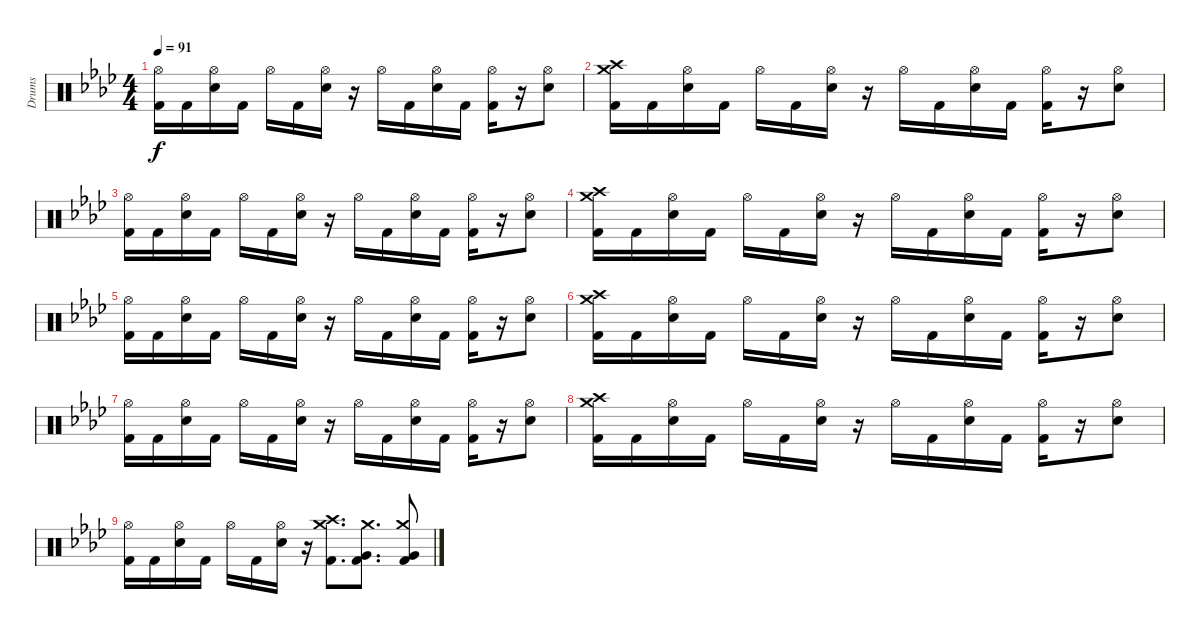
\track ("Drums" "Drums") {instrument percussion}
\staff {score}
\articulation defaults
\ts (4 4)
\tempo 91
\clef neutral
\ks fminor
("Hi-Hat (open)" "Kick (hit) 2").16{dy f} "Kick (hit) 2".16 ("Hi-Hat (open)" "Electric Snare (hit)").16 "Kick (hit) 2".16 "Hi-Hat (open)".16 "Kick (hit) 2".16 ("Hi-Hat (open)" "Electric Snare (hit)").16 r.16 "Hi-Hat (open)".16 "Kick (hit) 2".16 ("Hi-Hat (open)" "Electric Snare (hit)").16 "Kick (hit) 2".16 ("Hi-Hat (open)" "Kick (hit) 2").16 r.16 ("Hi-Hat (open)" "Electric Snare (hit)").8 |
("Crash medium (hit)" "Crash high (hit)" "Kick (hit) 2").16 "Kick (hit) 2".16 ("Hi-Hat (open)" "Electric Snare (hit)").16 "Kick (hit) 2".16 "Hi-Hat (open)".16 "Kick (hit) 2".16 ("Hi-Hat (open)" "Electric Snare (hit)").16 r.16 "Hi-Hat (open)".16 "Kick (hit) 2".16 ("Hi-Hat (open)" "Electric Snare (hit)").16 "Kick (hit) 2".16 ("Hi-Hat (open)" "Kick (hit) 2").16 r.16 ("Hi-Hat (open)" "Electric Snare (hit)").8 |
("Hi-Hat (open)" "Kick (hit) 2").16 "Kick (hit) 2".16 ("Hi-Hat (open)" "Electric Snare (hit)").16 "Kick (hit) 2".16 "Hi-Hat (open)".16 "Kick (hit) 2".16 ("Hi-Hat (open)" "Electric Snare (hit)").16 r.16 "Hi-Hat (open)".16 "Kick (hit) 2".16 ("Hi-Hat (open)" "Electric Snare (hit)").16 "Kick (hit) 2".16 ("Hi-Hat (open)" "Kick (hit) 2").16 r.16 ("Hi-Hat (open)" "Electric Snare (hit)").8 |
("Crash medium (hit)" "Crash high (hit)" "Kick (hit) 2").16 "Kick (hit) 2".16 ("Hi-Hat (open)" "Electric Snare (hit)").16 "Kick (hit) 2".16 "Hi-Hat (open)".16 "Kick (hit) 2".16 ("Hi-Hat (open)" "Electric Snare (hit)").16 r.16 "Hi-Hat (open)".16 "Kick (hit) 2".16 ("Hi-Hat (open)" "Electric Snare (hit)").16 "Kick (hit) 2".16 ("Hi-Hat (open)" "Kick (hit) 2").16 r.16 ("Hi-Hat (open)" "Electric Snare (hit)").8 |
("Hi-Hat (open)" "Kick (hit) 2").16 "Kick (hit) 2".16 ("Hi-Hat (open)" "Electric Snare (hit)").16 "Kick (hit) 2".16 "Hi-Hat (open)".16 "Kick (hit) 2".16 ("Hi-Hat (open)" "Electric Snare (hit)").16 r.16 "Hi-Hat (open)".16 "Kick (hit) 2".16 ("Hi-Hat (open)" "Electric Snare (hit)").16 "Kick (hit) 2".16 ("Hi-Hat (open)" "Kick (hit) 2").16 r.16 ("Hi-Hat (open)" "Electric Snare (hit)").8 |
("Crash medium (hit)" "Crash high (hit)" "Kick (hit) 2").16 "Kick (hit) 2".16 ("Hi-Hat (open)" "Electric Snare (hit)").16 "Kick (hit) 2".16 "Hi-Hat (open)".16 "Kick (hit) 2".16 ("Hi-Hat (open)" "Electric Snare (hit)").16 r.16 "Hi-Hat (open)".16 "Kick (hit) 2".16 ("Hi-Hat (open)" "Electric Snare (hit)").16 "Kick (hit) 2".16 ("Hi-Hat (open)" "Kick (hit) 2").16 r.16 ("Hi-Hat (open)" "Electric Snare (hit)").8 |
("Hi-Hat (open)" "Kick (hit) 2").16 "Kick (hit) 2".16 ("Hi-Hat (open)" "Electric Snare (hit)").16 "Kick (hit) 2".16 "Hi-Hat (open)".16 "Kick (hit) 2".16 ("Hi-Hat (open)" "Electric Snare (hit)").16 r.16 "Hi-Hat (open)".16 "Kick (hit) 2".16 ("Hi-Hat (open)" "Electric Snare (hit)").16 "Kick (hit) 2".16 ("Hi-Hat (open)" "Kick (hit) 2").16 r.16 ("Hi-Hat (open)" "Electric Snare (hit)").8 |
("Crash medium (hit)" "Crash high (hit)" "Kick (hit) 2").16 "Kick (hit) 2".16 ("Hi-Hat (open)" "Electric Snare (hit)").16 "Kick (hit) 2".16 "Hi-Hat (open)".16 "Kick (hit) 2".16 ("Hi-Hat (open)" "Electric Snare (hit)").16 r.16 "Hi-Hat (open)".16 "Kick (hit) 2".16 ("Hi-Hat (open)" "Electric Snare (hit)").16 "Kick (hit) 2".16 ("Hi-Hat (open)" "Kick (hit) 2").16 r.16 ("Hi-Hat (open)" "Electric Snare (hit)").8 |
("Hi-Hat (open)" "Kick (hit) 2").16 "Kick (hit) 2".16 ("Hi-Hat (open)" "Electric Snare (hit)").16 "Kick (hit) 2".16 "Hi-Hat (open)".16 "Kick (hit) 2".16 ("Hi-Hat (open)" "Electric Snare (hit)").16 r.16 ("Crash medium (hit)" "Crash high (hit)" "Kick (hit) 2").8{d} ("Crash medium (hit)" "Very Low Tom (hit)" "Kick (hit) 2").8{d} ("Crash medium (hit)" "Very Low Tom (hit)" "Kick (hit) 2").8
